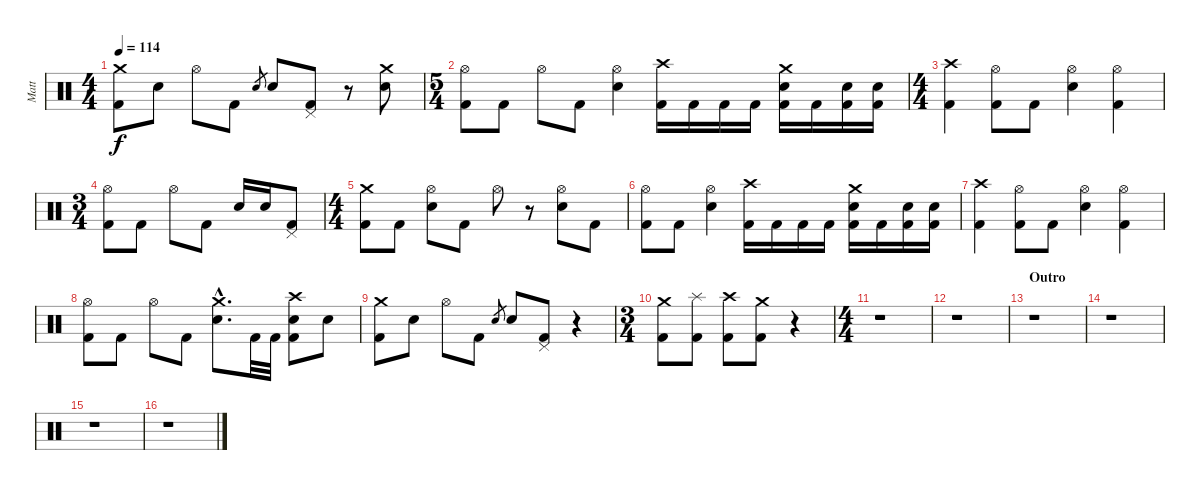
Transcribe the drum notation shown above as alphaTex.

\track ("Matt" "Matt") {instrument percussion}
\staff {score}
\articulation defaults
\ts (4 4)
\tempo 114
\clef neutral
\ks c
("Crash medium (hit)" "Kick (hit) 2").8{dy f} "Electric Snare (hit)".8 "Hi-Hat (open)".8 "Kick (hit) 2".8 "Electric Snare (hit)".8{gr} "Electric Snare (hit)".8 ("Pedal Hi-Hat (hit)" "Kick (hit) 2").8 r.8 ("Crash medium (hit)" "Electric Snare (hit)").8 |
\ts (5 4)
("Hi-Hat (open)" "Kick (hit) 2").8 "Kick (hit) 2".8 "Hi-Hat (open)".8 "Kick (hit) 2".8 ("Hi-Hat (open)" "Electric Snare (hit)").4 ("Crash high (hit)" "Kick (hit) 2").16 "Kick (hit) 2".16 "Kick (hit) 2".16 "Kick (hit) 2".16 ("Crash medium (hit)" "Electric Snare (hit)" "Kick (hit) 2").16 "Kick (hit) 2".16 ("Electric Snare (hit)" "Kick (hit) 2").16 ("Electric Snare (hit)" "Kick (hit) 2").16 |
\ts (4 4)
("Crash high (hit)" "Kick (hit) 2").4 ("Hi-Hat (open)" "Kick (hit) 2").8 "Kick (hit) 2".8 ("Hi-Hat (open)" "Electric Snare (hit)").4 ("Hi-Hat (open)" "Kick (hit) 2").4 |
\ts (3 4)
("Hi-Hat (open)" "Kick (hit) 2").8 "Kick (hit) 2".8 "Hi-Hat (open)".8 "Kick (hit) 2".8 "Electric Snare (hit)".16 "Electric Snare (hit)".16 ("Pedal Hi-Hat (hit)" "Kick (hit) 2").8 |
\ts (4 4)
("Crash medium (hit)" "Kick (hit) 2").8 "Kick (hit) 2".8 ("Hi-Hat (open)" "Electric Snare (hit)").8 "Kick (hit) 2".8 "Hi-Hat (open)".8 r.8 ("Hi-Hat (open)" "Electric Snare (hit)").8 "Kick (hit) 2".8 |
("Hi-Hat (open)" "Kick (hit) 2").8 "Kick (hit) 2".8 ("Hi-Hat (open)" "Electric Snare (hit)").4 ("Crash high (hit)" "Kick (hit) 2").16 "Kick (hit) 2".16 "Kick (hit) 2".16 "Kick (hit) 2".16 ("Crash medium (hit)" "Electric Snare (hit)" "Kick (hit) 2").16 "Kick (hit) 2".16 ("Electric Snare (hit)" "Kick (hit) 2").16 ("Electric Snare (hit)" "Kick (hit) 2").16 |
("Crash high (hit)" "Kick (hit) 2").4 ("Hi-Hat (open)" "Kick (hit) 2").8 "Kick (hit) 2".8 ("Hi-Hat (open)" "Electric Snare (hit)").4 ("Hi-Hat (open)" "Kick (hit) 2").4 |
("Hi-Hat (open)" "Kick (hit) 2").8 "Kick (hit) 2".8 "Hi-Hat (open)".8 "Kick (hit) 2".8 ("Crash medium (hit)"{hac} "Electric Snare (hit)"{hac}).8{d} "Kick (hit) 2".32 "Kick (hit) 2".32 ("Crash high (hit)" "Electric Snare (hit)" "Kick (hit) 2").8 "Electric Snare (hit)".8 |
("Crash medium (hit)" "Kick (hit) 2").8 "Electric Snare (hit)".8 "Hi-Hat (open)".8 "Kick (hit) 2".8 "Electric Snare (hit)".8{gr} "Electric Snare (hit)".8 ("Pedal Hi-Hat (hit)" "Kick (hit) 2").8 r.4 |
\ts (3 4)
("Crash medium (hit)" "Kick (hit) 2").8 ("Splash (hit)" "Kick (hit) 2").8 ("Crash high (hit)" "Kick (hit) 2").8 ("Crash medium (hit)" "Kick (hit) 2").8 r.4 |
\ts (4 4)
r.1 |
r.1 |
\section ("" "Outro")
r.1 |
r.1 |
r.1 |
r.1
